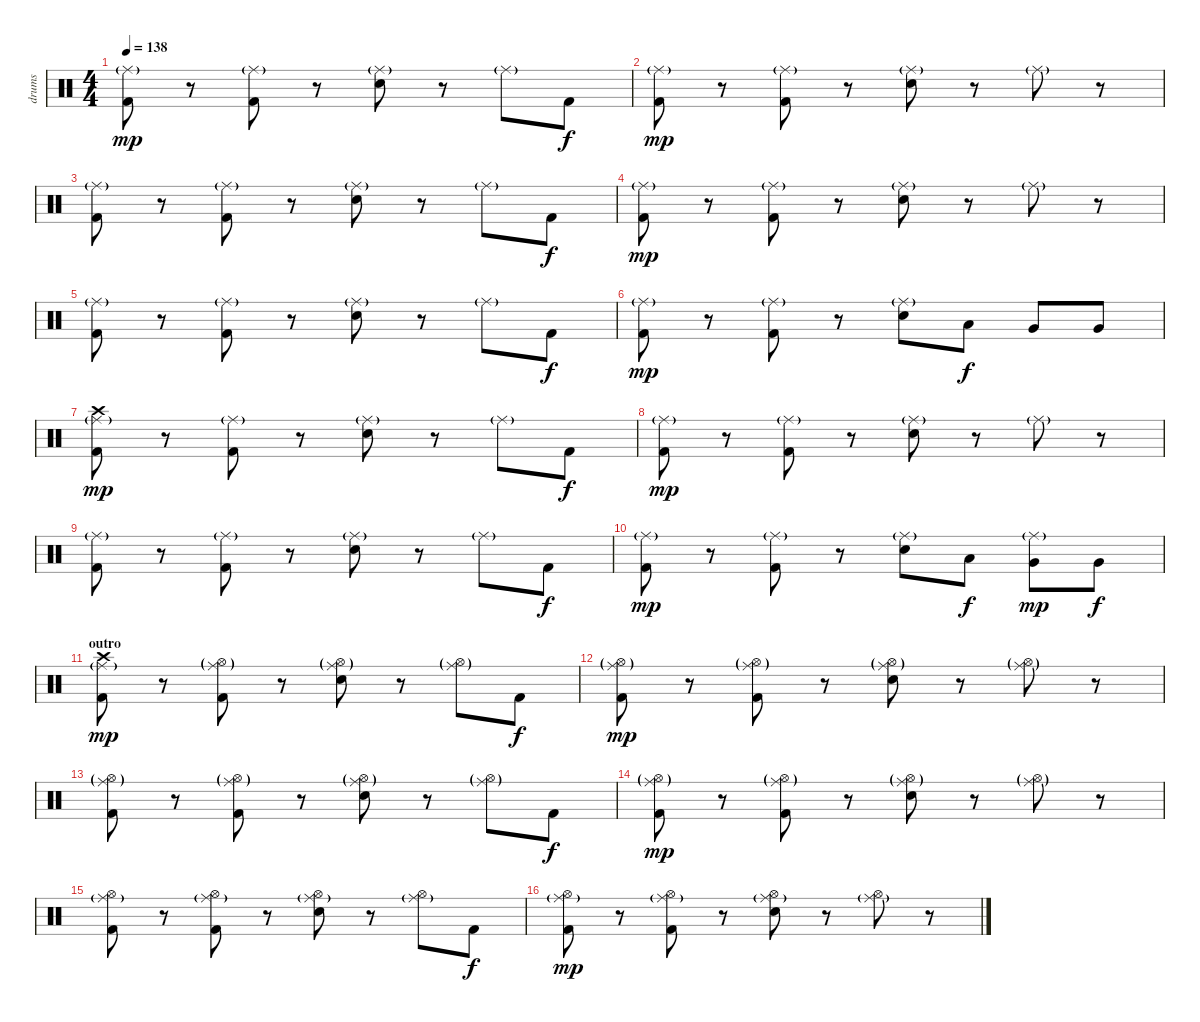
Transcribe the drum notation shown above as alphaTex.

\track ("drums" "drums") {instrument percussion}
\staff {score}
\articulation defaults
\ts (4 4)
\tempo 138
\clef neutral
\ks c
("Kick (hit) 2" "Ride (middle)"{g}).8{dy mp} r.8 ("Kick (hit) 2" "Ride (middle)"{g}).8 r.8 ("Electric Snare (hit)" "Ride (middle)"{g}).8 r.8 "Ride (middle)"{g}.8 "Kick (hit) 2".8{dy f} |
("Kick (hit) 2" "Ride (middle)"{g}).8{dy mp} r.8 ("Kick (hit) 2" "Ride (middle)"{g}).8 r.8 ("Electric Snare (hit)" "Ride (middle)"{g}).8 r.8 "Ride (middle)"{g}.8 r.8 |
("Kick (hit) 2" "Ride (middle)"{g}).8 r.8 ("Kick (hit) 2" "Ride (middle)"{g}).8 r.8 ("Electric Snare (hit)" "Ride (middle)"{g}).8 r.8 "Ride (middle)"{g}.8 "Kick (hit) 2".8{dy f} |
("Kick (hit) 2" "Ride (middle)"{g}).8{dy mp} r.8 ("Kick (hit) 2" "Ride (middle)"{g}).8 r.8 ("Electric Snare (hit)" "Ride (middle)"{g}).8 r.8 "Ride (middle)"{g}.8 r.8 |
("Kick (hit) 2" "Ride (middle)"{g}).8 r.8 ("Kick (hit) 2" "Ride (middle)"{g}).8 r.8 ("Electric Snare (hit)" "Ride (middle)"{g}).8 r.8 "Ride (middle)"{g}.8 "Kick (hit) 2".8{dy f} |
("Kick (hit) 2" "Ride (middle)"{g}).8{dy mp} r.8 ("Kick (hit) 2" "Ride (middle)"{g}).8 r.8 ("Electric Snare (hit)" "Ride (middle)"{g}).8 "Low Tom (hit)".8{dy f} "Very Low Tom (hit)".8 "Very Low Tom (hit)".8 |
("Kick (hit) 2" "Ride (middle)"{g} "Crash high (hit)").8{dy mp} r.8 ("Kick (hit) 2" "Ride (middle)"{g}).8 r.8 ("Electric Snare (hit)" "Ride (middle)"{g}).8 r.8 "Ride (middle)"{g}.8 "Kick (hit) 2".8{dy f} |
("Kick (hit) 2" "Ride (middle)"{g}).8{dy mp} r.8 ("Kick (hit) 2" "Ride (middle)"{g}).8 r.8 ("Electric Snare (hit)" "Ride (middle)"{g}).8 r.8 "Ride (middle)"{g}.8 r.8 |
("Kick (hit) 2" "Ride (middle)"{g}).8 r.8 ("Kick (hit) 2" "Ride (middle)"{g}).8 r.8 ("Electric Snare (hit)" "Ride (middle)"{g}).8 r.8 "Ride (middle)"{g}.8 "Kick (hit) 2".8{dy f} |
("Kick (hit) 2" "Ride (middle)"{g}).8{dy mp} r.8 ("Kick (hit) 2" "Ride (middle)"{g}).8 r.8 ("Electric Snare (hit)" "Ride (middle)"{g}).8 "Low Tom (hit)".8{dy f} ("Very Low Tom (hit)" "Ride (middle)"{g}).8{dy mp} "Very Low Tom (hit)".8{dy f} |
\section ("" "outro")
("Kick (hit) 2" "Ride (middle)"{g} "Crash high (hit)").8{dy mp} r.8 ("Kick (hit) 2" "Ride (middle)"{g} "Hi-Hat (open)"{g}).8 r.8 ("Electric Snare (hit)" "Ride (middle)"{g} "Hi-Hat (open)"{g}).8 r.8 ("Ride (middle)"{g} "Hi-Hat (open)"{g}).8 "Kick (hit) 2".8{dy f} |
("Kick (hit) 2" "Ride (middle)"{g} "Hi-Hat (open)"{g}).8{dy mp} r.8 ("Kick (hit) 2" "Ride (middle)"{g} "Hi-Hat (open)"{g}).8 r.8 ("Electric Snare (hit)" "Ride (middle)"{g} "Hi-Hat (open)"{g}).8 r.8 ("Ride (middle)"{g} "Hi-Hat (open)"{g}).8 r.8 |
("Kick (hit) 2" "Ride (middle)"{g} "Hi-Hat (open)"{g}).8 r.8 ("Kick (hit) 2" "Ride (middle)"{g} "Hi-Hat (open)"{g}).8 r.8 ("Electric Snare (hit)" "Ride (middle)"{g} "Hi-Hat (open)"{g}).8 r.8 ("Ride (middle)"{g} "Hi-Hat (open)"{g}).8 "Kick (hit) 2".8{dy f} |
("Kick (hit) 2" "Ride (middle)"{g} "Hi-Hat (open)"{g}).8{dy mp} r.8 ("Kick (hit) 2" "Ride (middle)"{g} "Hi-Hat (open)"{g}).8 r.8 ("Electric Snare (hit)" "Ride (middle)"{g} "Hi-Hat (open)"{g}).8 r.8 ("Ride (middle)"{g} "Hi-Hat (open)"{g}).8 r.8 |
("Kick (hit) 2" "Ride (middle)"{g} "Hi-Hat (open)").8 r.8 ("Kick (hit) 2" "Ride (middle)"{g} "Hi-Hat (open)").8 r.8 ("Electric Snare (hit)" "Ride (middle)"{g} "Hi-Hat (open)").8 r.8 ("Ride (middle)"{g} "Hi-Hat (open)").8 "Kick (hit) 2".8{dy f} |
("Kick (hit) 2" "Ride (middle)"{g} "Hi-Hat (open)").8{dy mp} r.8 ("Kick (hit) 2" "Ride (middle)"{g} "Hi-Hat (open)").8 r.8 ("Electric Snare (hit)" "Ride (middle)"{g} "Hi-Hat (open)").8 r.8 ("Ride (middle)"{g} "Hi-Hat (open)").8 r.8
